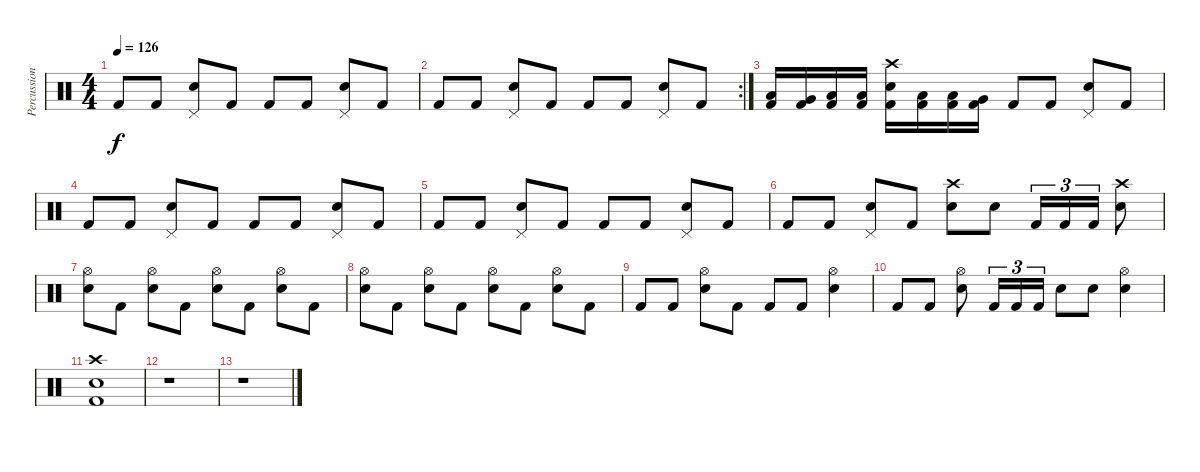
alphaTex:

\track ("Percussion" "Percussion") {instrument percussion}
\staff {score}
\articulation defaults
\ts (4 4)
\tempo 126
\clef neutral
\ks c "Kick (hit) 2".8{dy f} "Kick (hit) 2".8
("Pedal Hi-Hat (hit)" "Electric Snare (hit)").8 "Kick (hit) 2".8 "Kick (hit) 2".8 "Kick (hit) 2".8 ("Pedal Hi-Hat (hit)" "Electric Snare (hit)").8 "Kick (hit) 2".8 |
\rc 2 "Kick (hit) 2".8 "Kick (hit) 2".8
("Pedal Hi-Hat (hit)" "Electric Snare (hit)").8 "Kick (hit) 2".8 "Kick (hit) 2".8 "Kick (hit) 2".8 ("Pedal Hi-Hat (hit)" "Electric Snare (hit)").8 "Kick (hit) 2".8 |
("Low Tom (hit)" "Kick (hit) 2").16 ("Very Low Tom (hit)" "Kick (hit) 2").16 ("Low Floor Tom (hit)" "Kick (hit) 2").16 ("Low Tom (hit)" "Kick (hit) 2").16 ("Crash high (hit)" "Electric Snare (hit)" "Kick (hit) 2").16 ("Low Floor Tom (hit)" "Kick (hit) 2").16 ("Low Tom (hit)" "Kick (hit) 2").16 ("Very Low Tom (hit)" "Kick (hit) 2").16 "Kick (hit) 2".8 "Kick (hit) 2".8 ("Pedal Hi-Hat (hit)" "Electric Snare (hit)").8 "Kick (hit) 2".8 |
"Kick (hit) 2".8 "Kick (hit) 2".8 ("Pedal Hi-Hat (hit)" "Electric Snare (hit)").8 "Kick (hit) 2".8 "Kick (hit) 2".8 "Kick (hit) 2".8 ("Pedal Hi-Hat (hit)" "Electric Snare (hit)").8 "Kick (hit) 2".8 |
"Kick (hit) 2".8 "Kick (hit) 2".8 ("Pedal Hi-Hat (hit)" "Electric Snare (hit)").8 "Kick (hit) 2".8 "Kick (hit) 2".8 "Kick (hit) 2".8 ("Pedal Hi-Hat (hit)" "Electric Snare (hit)").8 "Kick (hit) 2".8 |
"Kick (hit) 2".8 "Kick (hit) 2".8 ("Pedal Hi-Hat (hit)" "Electric Snare (hit)").8 "Kick (hit) 2".8 ("Crash high (hit)" "Electric Snare (hit)").8 "Electric Snare (hit)".8 "Kick (hit) 2".16{tu (3 2)} "Kick (hit) 2".16{tu (3 2)} "Kick (hit) 2".16{tu (3 2)} ("Crash high (hit)" "Electric Snare (hit)").8 |
("Hi-Hat (open)" "Electric Snare (hit)").8 "Kick (hit) 2".8 ("Hi-Hat (open)" "Electric Snare (hit)").8 "Kick (hit) 2".8 ("Hi-Hat (open)" "Electric Snare (hit)").8 "Kick (hit) 2".8 ("Hi-Hat (open)" "Electric Snare (hit)").8 "Kick (hit) 2".8 |
("Hi-Hat (open)" "Electric Snare (hit)").8 "Kick (hit) 2".8 ("Hi-Hat (open)" "Electric Snare (hit)").8 "Kick (hit) 2".8 ("Hi-Hat (open)" "Electric Snare (hit)").8 "Kick (hit) 2".8 ("Hi-Hat (open)" "Electric Snare (hit)").8 "Kick (hit) 2".8 |
"Kick (hit) 2".8 "Kick (hit) 2".8 ("Hi-Hat (open)" "Electric Snare (hit)").8 "Kick (hit) 2".8 "Kick (hit) 2".8 "Kick (hit) 2".8 ("Hi-Hat (open)" "Electric Snare (hit)").4 |
"Kick (hit) 2".8 "Kick (hit) 2".8 ("Hi-Hat (open)" "Electric Snare (hit)").8 "Kick (hit) 2".16{tu (3 2)} "Kick (hit) 2".16{tu (3 2)} "Kick (hit) 2".16{tu (3 2)} "Electric Snare (hit)".8 "Electric Snare (hit)".8 ("Hi-Hat (open)" "Electric Snare (hit)").4 |
("Crash high (hit)" "Electric Snare (hit)" "Kick (hit) 2").1 |
r.1 |
r.1
